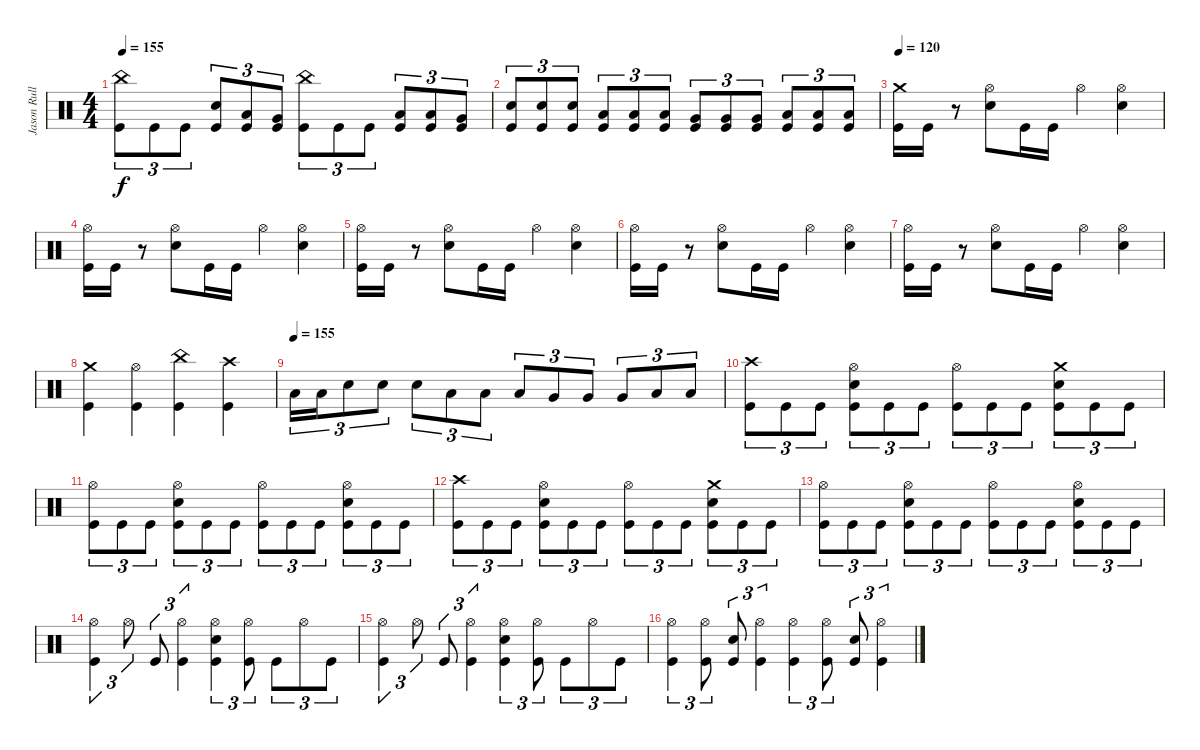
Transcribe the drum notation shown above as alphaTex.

\track ("Jason Rullo - BATTERIE" "Jason Rull") {instrument percussion}
\staff {score}
\articulation defaults
\ts (4 4)
\tempo 155
\clef neutral
\ks c
("China (hit)" "Kick (hit)").8{tu (3 2) dy f} "Kick (hit)".8{tu (3 2)} "Kick (hit)".8{tu (3 2)} ("Snare (hit) 2" "Kick (hit)").8{tu (3 2)} ("Low Tom (hit)" "Kick (hit)").8{tu (3 2)} ("Very Low Tom (hit)" "Kick (hit)").8{tu (3 2)} ("China (hit)" "Kick (hit)").8{tu (3 2)} "Kick (hit)".8{tu (3 2)} "Kick (hit)".8{tu (3 2)} ("Low Tom (hit)" "Kick (hit)").8{tu (3 2)} ("Low Tom (hit)" "Kick (hit)").8{tu (3 2)} ("Very Low Tom (hit)" "Kick (hit)").8{tu (3 2)} |
("Snare (hit) 2" "Kick (hit)").8{tu (3 2)} ("Snare (hit) 2" "Kick (hit)").8{tu (3 2)} ("Snare (hit) 2" "Kick (hit)").8{tu (3 2)} ("Low Tom (hit)" "Kick (hit)").8{tu (3 2)} ("Low Tom (hit)" "Kick (hit)").8{tu (3 2)} ("Low Tom (hit)" "Kick (hit)").8{tu (3 2)} ("Very Low Tom (hit)" "Kick (hit)").8{tu (3 2)} ("Very Low Tom (hit)" "Kick (hit)").8{tu (3 2)} ("Very Low Tom (hit)" "Kick (hit)").8{tu (3 2)} ("Low Floor Tom (hit)" "Kick (hit)").8{tu (3 2)} ("Low Floor Tom (hit)" "Kick (hit)").8{tu (3 2)} ("Low Floor Tom (hit)" "Kick (hit)").8{tu (3 2)} |
\tempo 120
("Crash medium (hit)" "Kick (hit)").16 "Kick (hit)".16 r.8 ("Hi-Hat (open)" "Snare (hit) 2").8 "Kick (hit)".16 "Kick (hit)".16 "Hi-Hat (open)".4 ("Hi-Hat (open)" "Snare (hit) 2").4 |
("Hi-Hat (open)" "Kick (hit)").16 "Kick (hit)".16 r.8 ("Hi-Hat (open)" "Snare (hit) 2").8 "Kick (hit)".16 "Kick (hit)".16 "Hi-Hat (open)".4 ("Hi-Hat (open)" "Snare (hit) 2").4 |
("Hi-Hat (open)" "Kick (hit)").16 "Kick (hit)".16 r.8 ("Hi-Hat (open)" "Snare (hit) 2").8 "Kick (hit)".16 "Kick (hit)".16 "Hi-Hat (open)".4 ("Hi-Hat (open)" "Snare (hit) 2").4 |
("Hi-Hat (open)" "Kick (hit)").16 "Kick (hit)".16 r.8 ("Hi-Hat (open)" "Snare (hit) 2").8 "Kick (hit)".16 "Kick (hit)".16 "Hi-Hat (open)".4 ("Hi-Hat (open)" "Snare (hit) 2").4 |
("Hi-Hat (open)" "Kick (hit)").16 "Kick (hit)".16 r.8 ("Hi-Hat (open)" "Snare (hit) 2").8 "Kick (hit)".16 "Kick (hit)".16 "Hi-Hat (open)".4 ("Hi-Hat (open)" "Snare (hit) 2").4 |
("Crash medium (hit)" "Kick (hit)").4 ("Hi-Hat (open)" "Kick (hit)").4 ("China (hit)" "Kick (hit)").4 ("Crash high (hit)" "Kick (hit)").4 |
\tempo (155)
"Low Tom (hit)".16{tu (3 2)} "Low Tom (hit)".16{tu (3 2)} "Snare (hit) 2".8{tu (3 2)} "Snare (hit) 2".8{tu (3 2)} "Snare (hit) 2".8{tu (3 2)} "Low Tom (hit)".8{tu (3 2)} "Low Tom (hit)".8{tu (3 2)} "Low Tom (hit)".8{tu (3 2)} "Very Low Tom (hit)".8{tu (3 2)} "Very Low Tom (hit)".8{tu (3 2)} "Very Low Tom (hit)".8{tu (3 2)} "Low Floor Tom (hit)".8{tu (3 2)} "Low Floor Tom (hit)".8{tu (3 2)} |
("Crash high (hit)" "Kick (hit)").8{tu (3 2)} "Kick (hit)".8{tu (3 2)} "Kick (hit)".8{tu (3 2)} ("Hi-Hat (open)" "Snare (hit) 2" "Kick (hit)").8{tu (3 2)} "Kick (hit)".8{tu (3 2)} "Kick (hit)".8{tu (3 2)} ("Hi-Hat (open)" "Kick (hit)").8{tu (3 2)} "Kick (hit)".8{tu (3 2)} "Kick (hit)".8{tu (3 2)} ("Crash medium (hit)" "Snare (hit) 2" "Kick (hit)").8{tu (3 2)} "Kick (hit)".8{tu (3 2)} "Kick (hit)".8{tu (3 2)} |
("Hi-Hat (open)" "Kick (hit)").8{tu (3 2)} "Kick (hit)".8{tu (3 2)} "Kick (hit)".8{tu (3 2)} ("Hi-Hat (open)" "Snare (hit) 2" "Kick (hit)").8{tu (3 2)} "Kick (hit)".8{tu (3 2)} "Kick (hit)".8{tu (3 2)} ("Hi-Hat (open)" "Kick (hit)").8{tu (3 2)} "Kick (hit)".8{tu (3 2)} "Kick (hit)".8{tu (3 2)} ("Hi-Hat (open)" "Snare (hit) 2" "Kick (hit)").8{tu (3 2)} "Kick (hit)".8{tu (3 2)} "Kick (hit)".8{tu (3 2)} |
("Crash high (hit)" "Kick (hit)").8{tu (3 2)} "Kick (hit)".8{tu (3 2)} "Kick (hit)".8{tu (3 2)} ("Hi-Hat (open)" "Snare (hit) 2" "Kick (hit)").8{tu (3 2)} "Kick (hit)".8{tu (3 2)} "Kick (hit)".8{tu (3 2)} ("Hi-Hat (open)" "Kick (hit)").8{tu (3 2)} "Kick (hit)".8{tu (3 2)} "Kick (hit)".8{tu (3 2)} ("Crash medium (hit)" "Snare (hit) 2" "Kick (hit)").8{tu (3 2)} "Kick (hit)".8{tu (3 2)} "Kick (hit)".8{tu (3 2)} |
("Hi-Hat (open)" "Kick (hit)").8{tu (3 2)} "Kick (hit)".8{tu (3 2)} "Kick (hit)".8{tu (3 2)} ("Hi-Hat (open)" "Snare (hit) 2" "Kick (hit)").8{tu (3 2)} "Kick (hit)".8{tu (3 2)} "Kick (hit)".8{tu (3 2)} ("Hi-Hat (open)" "Kick (hit)").8{tu (3 2)} "Kick (hit)".8{tu (3 2)} "Kick (hit)".8{tu (3 2)} ("Hi-Hat (open)" "Snare (hit) 2" "Kick (hit)").8{tu (3 2)} "Kick (hit)".8{tu (3 2)} "Kick (hit)".8{tu (3 2)} |
("Hi-Hat (open)" "Kick (hit)").4{tu (3 2)} "Hi-Hat (open)".8{tu (3 2)} "Kick (hit)".8{tu (3 2)} ("Hi-Hat (open)" "Kick (hit)").4{tu (3 2)} ("Hi-Hat (open)" "Snare (hit) 2" "Kick (hit)").4{tu (3 2)} ("Hi-Hat (open)" "Kick (hit)").8{tu (3 2)} "Kick (hit)".8{tu (3 2)} "Hi-Hat (open)".8{tu (3 2)} "Kick (hit)".8{tu (3 2)} |
("Hi-Hat (open)" "Kick (hit)").4{tu (3 2)} "Hi-Hat (open)".8{tu (3 2)} "Kick (hit)".8{tu (3 2)} ("Hi-Hat (open)" "Kick (hit)").4{tu (3 2)} ("Hi-Hat (open)" "Snare (hit) 2" "Kick (hit)").4{tu (3 2)} ("Hi-Hat (open)" "Kick (hit)").8{tu (3 2)} "Kick (hit)".8{tu (3 2)} "Hi-Hat (open)".8{tu (3 2)} "Kick (hit)".8{tu (3 2)} |
("Hi-Hat (open)" "Kick (hit)").4{tu (3 2)} ("Hi-Hat (open)" "Kick (hit)").8{tu (3 2)} ("Snare (hit) 2" "Kick (hit)").8{tu (3 2)} ("Hi-Hat (open)" "Kick (hit)").4{tu (3 2)} ("Hi-Hat (open)" "Kick (hit)").4{tu (3 2)} ("Hi-Hat (open)" "Kick (hit)").8{tu (3 2)} ("Snare (hit) 2" "Kick (hit)").8{tu (3 2)} ("Hi-Hat (open)" "Kick (hit)").4{tu (3 2)}
